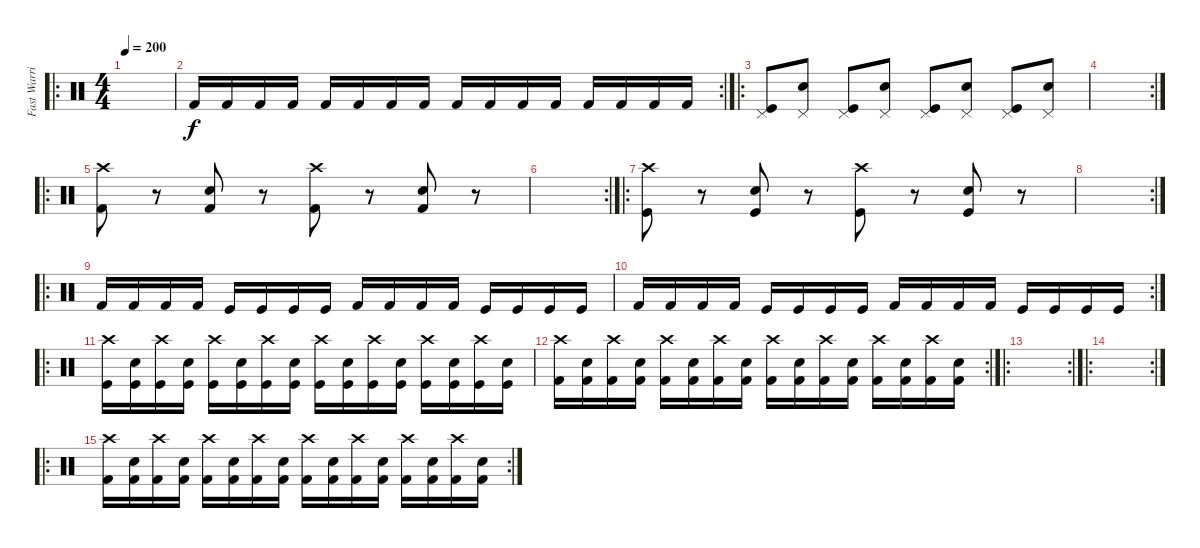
\track ("Fast Warrior" "Fast Warri") {instrument percussion}
\staff {score}
\articulation defaults
\ro
\ts (4 4)
\tempo 200
\clef neutral
\ks c
|
\rc 2 "Kick (hit) 2".16 "Kick (hit) 2".16 "Kick (hit) 2".16 "Kick (hit) 2".16 "Kick (hit) 2".16 "Kick (hit) 2".16 "Kick (hit) 2".16 "Kick (hit) 2".16 "Kick (hit) 2".16 "Kick (hit) 2".16 "Kick (hit) 2".16 "Kick (hit) 2".16 "Kick (hit) 2".16 "Kick (hit) 2".16 "Kick (hit) 2".16 "Kick (hit) 2".16
|
\ro
("Kick (hit)" "Pedal Hi-Hat (hit)").8 ("Electric Snare (hit)" "Pedal Hi-Hat (hit)").8 ("Kick (hit)" "Pedal Hi-Hat (hit)").8 ("Electric Snare (hit)" "Pedal Hi-Hat (hit)").8 ("Kick (hit)" "Pedal Hi-Hat (hit)").8 ("Electric Snare (hit)" "Pedal Hi-Hat (hit)").8 ("Kick (hit)" "Pedal Hi-Hat (hit)").8 ("Electric Snare (hit)" "Pedal Hi-Hat (hit)").8 |
\rc 2
|
\ro
("Kick (hit) 2" "Crash high (hit)").8 r.8 ("Kick (hit) 2" "Electric Snare (hit)").8 r.8 ("Kick (hit) 2" "Crash high (hit)").8 r.8 ("Kick (hit) 2" "Electric Snare (hit)").8 r.8 |
\rc 2
|
\ro
("Crash high (hit)" "Kick (hit)").8 r.8 ("Electric Snare (hit)" "Kick (hit)").8 r.8 ("Crash high (hit)" "Kick (hit)").8 r.8 ("Electric Snare (hit)" "Kick (hit)").8 r.8 |
\rc 2
|
\ro "Kick (hit) 2".16 "Kick (hit) 2".16 "Kick (hit) 2".16 "Kick (hit) 2".16 "Kick (hit)".16 "Kick (hit)".16 "Kick (hit)".16 "Kick (hit)".16 "Kick (hit) 2".16 "Kick (hit) 2".16 "Kick (hit) 2".16 "Kick (hit) 2".16 "Kick (hit)".16 "Kick (hit)".16 "Kick (hit)".16 "Kick (hit)".16
|
\rc 2 "Kick (hit) 2".16 "Kick (hit) 2".16 "Kick (hit) 2".16 "Kick (hit) 2".16 "Kick (hit)".16 "Kick (hit)".16 "Kick (hit)".16 "Kick (hit)".16 "Kick (hit) 2".16 "Kick (hit) 2".16 "Kick (hit) 2".16 "Kick (hit) 2".16 "Kick (hit)".16 "Kick (hit)".16 "Kick (hit)".16 "Kick (hit)".16
|
\ro
("Kick (hit)" "Crash high (hit)").16 ("Kick (hit)" "Electric Snare (hit)").16 ("Kick (hit)" "Crash high (hit)").16 ("Kick (hit)" "Electric Snare (hit)").16 ("Kick (hit)" "Crash high (hit)").16 ("Kick (hit)" "Electric Snare (hit)").16 ("Kick (hit)" "Crash high (hit)").16 ("Kick (hit)" "Electric Snare (hit)").16 ("Kick (hit)" "Crash high (hit)").16 ("Kick (hit)" "Electric Snare (hit)").16 ("Kick (hit)" "Crash high (hit)").16 ("Kick (hit)" "Electric Snare (hit)").16 ("Kick (hit)" "Crash high (hit)").16 ("Kick (hit)" "Electric Snare (hit)").16 ("Kick (hit)" "Crash high (hit)").16 ("Kick (hit)" "Electric Snare (hit)").16 |
\rc 2
("Kick (hit) 2" "Crash high (hit)").16 ("Kick (hit) 2" "Electric Snare (hit)").16 ("Kick (hit) 2" "Crash high (hit)").16 ("Kick (hit) 2" "Electric Snare (hit)").16 ("Kick (hit) 2" "Crash high (hit)").16 ("Kick (hit) 2" "Electric Snare (hit)").16 ("Kick (hit) 2" "Crash high (hit)").16 ("Kick (hit) 2" "Electric Snare (hit)").16 ("Kick (hit) 2" "Crash high (hit)").16 ("Kick (hit) 2" "Electric Snare (hit)").16 ("Kick (hit) 2" "Crash high (hit)").16 ("Kick (hit) 2" "Electric Snare (hit)").16 ("Kick (hit) 2" "Crash high (hit)").16 ("Kick (hit) 2" "Electric Snare (hit)").16 ("Kick (hit) 2" "Crash high (hit)").16 ("Kick (hit) 2" "Electric Snare (hit)").16 |
\ro
\rc 2
|
\ro
\rc 2
|
\ro
\rc 2
("Kick (hit) 2" "Crash high (hit)").16 ("Kick (hit) 2" "Electric Snare (hit)").16 ("Kick (hit) 2" "Crash high (hit)").16 ("Kick (hit) 2" "Electric Snare (hit)").16 ("Kick (hit) 2" "Crash high (hit)").16 ("Kick (hit) 2" "Electric Snare (hit)").16 ("Kick (hit) 2" "Crash high (hit)").16 ("Kick (hit) 2" "Electric Snare (hit)").16 ("Kick (hit) 2" "Crash high (hit)").16 ("Kick (hit) 2" "Electric Snare (hit)").16 ("Kick (hit) 2" "Crash high (hit)").16 ("Kick (hit) 2" "Electric Snare (hit)").16 ("Kick (hit) 2" "Crash high (hit)").16 ("Kick (hit) 2" "Electric Snare (hit)").16 ("Kick (hit) 2" "Crash high (hit)").16 ("Kick (hit) 2" "Electric Snare (hit)").16
